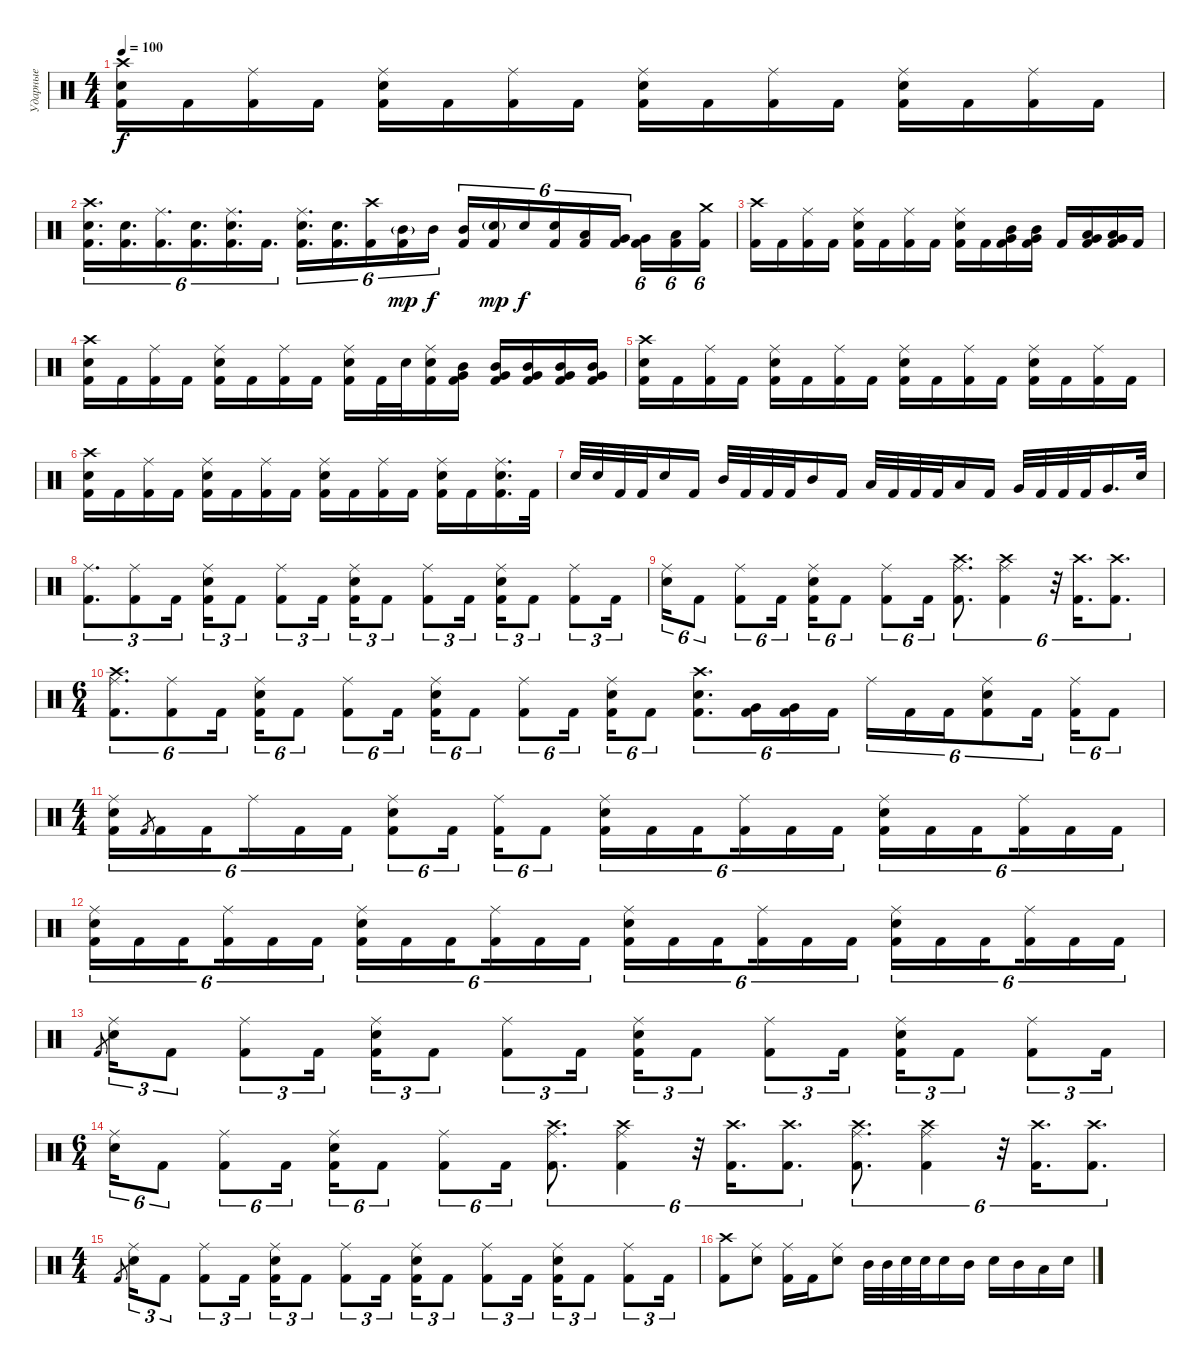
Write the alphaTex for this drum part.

\track ("Ударные" "Ударные") {instrument percussion}
\staff
\articulation defaults
\ts (4 4)
\tempo 100
\clef neutral
\ks c
("Kick (hit) 2" "Electric Snare (hit)" "Crash high (hit)").16{dy f} "Kick (hit) 2".16 ("Kick (hit) 2" "Ride (middle)").16 "Kick (hit) 2".16 ("Kick (hit) 2" "Electric Snare (hit)" "Ride (middle)").16 "Kick (hit) 2".16 ("Kick (hit) 2" "Ride (middle)").16 "Kick (hit) 2".16 ("Kick (hit) 2" "Electric Snare (hit)" "Ride (middle)").16 "Kick (hit) 2".16 ("Kick (hit) 2" "Ride (middle)").16 "Kick (hit) 2".16 ("Kick (hit) 2" "Electric Snare (hit)" "Ride (middle)").16 "Kick (hit) 2".16 ("Kick (hit) 2" "Ride (middle)").16 "Kick (hit) 2".16 |
("Kick (hit) 2" "Crash high (hit)" "Electric Snare (hit)").16{d tu (6 4)} ("Kick (hit) 2" "Electric Snare (hit)").16{d tu (6 4)} ("Kick (hit) 2" "Ride (middle)").16{d tu (6 4)} ("Kick (hit) 2" "Electric Snare (hit)").16{d tu (6 4)} ("Kick (hit) 2" "Electric Snare (hit)" "Ride (middle)").16{d tu (6 4)} "Kick (hit) 2".16{d tu (6 4)} ("Kick (hit) 2" "Electric Snare (hit)" "Ride (middle)").16{d tu (6 4)} ("Kick (hit) 2" "Electric Snare (hit)").16{d tu (6 4)} ("Kick (hit) 2" "Crash high (hit)").16{tu (6 4)} ("Kick (hit) 2" "Mid Tom (hit)"{g}).16{tu (6 4) dy mp} "Mid Tom (hit)".16{tu (6 4) dy f beam splitsecondary} ("Kick (hit) 2" "Mid Tom (hit)").16{tu (6 4)} ("Kick (hit) 2" "Electric Snare (hit)"{g}).16{tu (6 4) dy mp} "Electric Snare (hit)".16{tu (6 4) dy f} ("Kick (hit) 2" "Electric Snare (hit)").16{tu (6 4)} ("Kick (hit) 2" "Low Tom (hit)").16{tu (6 4)} ("Kick (hit) 2" "Very Low Tom (hit)").16{tu (6 4) beam splitsecondary} ("Kick (hit) 2" "Very Low Tom (hit)").16{tu (6 4)} ("Kick (hit) 2" "Low Floor Tom (hit)").16{tu (6 4)} ("Kick (hit) 2" "Crash medium (hit)").16{tu (6 4)} |
("Kick (hit) 2" "Crash high (hit)").16 "Kick (hit) 2".16 ("Kick (hit) 2" "Ride (middle)").16 "Kick (hit) 2".16 ("Kick (hit) 2" "Electric Snare (hit)" "Ride (middle)").16 "Kick (hit) 2".16 ("Kick (hit) 2" "Ride (middle)").16 "Kick (hit) 2".16 ("Kick (hit) 2" "Electric Snare (hit)" "Ride (middle)").16 "Kick (hit) 2".16 ("Kick (hit) 2" "Mid Tom (hit)" "Very Low Tom (hit)").16 ("Kick (hit) 2" "Mid Tom (hit)" "Very Low Tom (hit)").16 "Kick (hit) 2".16 ("Kick (hit) 2" "Low Tom (hit)" "Very Low Tom (hit)").16 ("Kick (hit) 2" "Low Tom (hit)" "Very Low Tom (hit)").16 "Kick (hit) 2".16 |
("Kick (hit) 2" "Crash high (hit)" "Electric Snare (hit)").16 "Kick (hit) 2".16 ("Kick (hit) 2" "Ride (middle)").16 "Kick (hit) 2".16 ("Kick (hit) 2" "Electric Snare (hit)" "Ride (middle)").16 "Kick (hit) 2".16 ("Kick (hit) 2" "Ride (middle)").16 "Kick (hit) 2".16 ("Kick (hit) 2" "Electric Snare (hit)" "Ride (middle)").16 "Kick (hit) 2".32 "Electric Snare (hit)".32 ("Kick (hit) 2" "Electric Snare (hit)" "Ride (middle)").16 ("Kick (hit) 2" "Mid Tom (hit)" "Very Low Tom (hit)").16 ("Kick (hit) 2" "Mid Tom (hit)" "Very Low Tom (hit)").16 ("Kick (hit) 2" "Mid Tom (hit)" "Very Low Tom (hit)").16 ("Kick (hit) 2" "Mid Tom (hit)" "Very Low Tom (hit)").16 ("Kick (hit) 2" "Mid Tom (hit)" "Very Low Tom (hit)").16 |
("Kick (hit) 2" "Electric Snare (hit)" "Crash high (hit)").16 "Kick (hit) 2".16 ("Kick (hit) 2" "Ride (middle)").16 "Kick (hit) 2".16 ("Kick (hit) 2" "Electric Snare (hit)" "Ride (middle)").16 "Kick (hit) 2".16 ("Kick (hit) 2" "Ride (middle)").16 "Kick (hit) 2".16 ("Kick (hit) 2" "Electric Snare (hit)" "Ride (middle)").16 "Kick (hit) 2".16 ("Kick (hit) 2" "Ride (middle)").16 "Kick (hit) 2".16 ("Kick (hit) 2" "Electric Snare (hit)" "Ride (middle)").16 "Kick (hit) 2".16 ("Kick (hit) 2" "Ride (middle)").16 "Kick (hit) 2".16 |
("Kick (hit) 2" "Crash high (hit)" "Electric Snare (hit)").16 "Kick (hit) 2".16 ("Kick (hit) 2" "Ride (middle)").16 "Kick (hit) 2".16 ("Kick (hit) 2" "Electric Snare (hit)" "Ride (middle)").16 "Kick (hit) 2".16 ("Kick (hit) 2" "Ride (middle)").16 "Kick (hit) 2".16 ("Kick (hit) 2" "Electric Snare (hit)" "Ride (middle)").16 "Kick (hit) 2".16 ("Kick (hit) 2" "Ride (middle)").16 "Kick (hit) 2".16 ("Kick (hit) 2" "Electric Snare (hit)" "Ride (middle)").16 "Kick (hit) 2".16 ("Kick (hit) 2" "Electric Snare (hit)" "Ride (middle)").16{d} "Kick (hit) 2".32 |
"Electric Snare (hit)".32 "Electric Snare (hit)".32 "Kick (hit) 2".32 "Kick (hit) 2".32 "Electric Snare (hit)".16 "Kick (hit) 2".16 "Mid Tom (hit)".32 "Kick (hit) 2".32 "Kick (hit) 2".32 "Kick (hit) 2".32 "Mid Tom (hit)".16 "Kick (hit) 2".16 "Low Tom (hit)".32 "Kick (hit) 2".32 "Kick (hit) 2".32 "Kick (hit) 2".32 "Low Tom (hit)".16 "Kick (hit) 2".16 "Very Low Tom (hit)".32 "Kick (hit) 2".32 "Kick (hit) 2".32 "Kick (hit) 2".32 "Very Low Tom (hit)".16{d} "Electric Snare (hit)".32 |
("Kick (hit) 2" "Ride (middle)").8{d tu (3 2)} ("Kick (hit) 2" "Ride (middle)").8{tu (3 2)} "Kick (hit) 2".16{tu (3 2)} ("Kick (hit) 2" "Electric Snare (hit)" "Ride (middle)").16{tu (3 2)} "Kick (hit) 2".8{tu (3 2)} ("Kick (hit) 2" "Ride (middle)").8{tu (3 2)} "Kick (hit) 2".16{tu (3 2)} ("Kick (hit) 2" "Electric Snare (hit)" "Ride (middle)").16{tu (3 2)} "Kick (hit) 2".8{tu (3 2)} ("Kick (hit) 2" "Ride (middle)").8{tu (3 2)} "Kick (hit) 2".16{tu (3 2)} ("Kick (hit) 2" "Electric Snare (hit)" "Ride (middle)").16{tu (3 2)} "Kick (hit) 2".8{tu (3 2)} ("Kick (hit) 2" "Ride (middle)").8{tu (3 2)} "Kick (hit) 2".16{tu (3 2)} |
("Electric Snare (hit)" "Ride (middle)").16{tu (6 4)} "Kick (hit) 2".8{tu (6 4)} ("Kick (hit) 2" "Ride (middle)").8{tu (6 4)} "Kick (hit) 2".16{tu (6 4)} ("Kick (hit) 2" "Electric Snare (hit)" "Ride (middle)").16{tu (6 4)} "Kick (hit) 2".8{tu (6 4)} ("Kick (hit) 2" "Ride (middle)").8{tu (6 4)} "Kick (hit) 2".16{tu (6 4)} ("Kick (hit) 2" "Crash high (hit)" "Ride (middle)").8{d tu (6 4)} ("Kick (hit) 2" "Crash high (hit)" "Ride (middle)").4{tu (6 4)} r.32{tu (6 4)} ("Kick (hit) 2" "Crash high (hit)").16{d tu (6 4)} ("Kick (hit) 2" "Crash high (hit)").8{d tu (6 4)} |
\ts (6 4)
("Kick (hit) 2" "Crash high (hit)" "Ride (middle)").8{d tu (6 4)} ("Kick (hit) 2" "Ride (middle)").8{tu (6 4)} "Kick (hit) 2".16{tu (6 4) beam splitsecondary} ("Kick (hit) 2" "Electric Snare (hit)" "Ride (middle)").16{tu (6 4)} "Kick (hit) 2".8{tu (6 4)} ("Kick (hit) 2" "Ride (middle)").8{tu (6 4)} "Kick (hit) 2".16{tu (6 4) beam splitsecondary} ("Kick (hit) 2" "Electric Snare (hit)" "Ride (middle)").16{tu (6 4)} "Kick (hit) 2".8{tu (6 4)} ("Kick (hit) 2" "Ride (middle)").8{tu (6 4)} "Kick (hit) 2".16{tu (6 4)} ("Kick (hit) 2" "Electric Snare (hit)" "Ride (middle)").16{tu (6 4)} "Kick (hit) 2".8{tu (6 4)} ("Kick (hit) 2" "Electric Snare (hit)" "Crash high (hit)").8{d tu (6 4)} ("Kick (hit) 2" "Very Low Tom (hit)").16{tu (6 4)} ("Kick (hit) 2" "Very Low Tom (hit)").16{tu (6 4)} "Kick (hit) 2".16{tu (6 4) beam splitsecondary} "Ride (middle)".16{tu (6 4)} "Kick (hit) 2".16{tu (6 4)} "Kick (hit) 2".16{tu (6 4)} ("Kick (hit) 2" "Electric Snare (hit)" "Ride (middle)").8{tu (6 4)} "Kick (hit) 2".16{tu (6 4) beam splitsecondary} ("Kick (hit) 2" "Ride (middle)").16{tu (6 4)} "Kick (hit) 2".8{tu (6 4)} |
\ts (4 4)
("Kick (hit) 2" "Electric Snare (hit)" "Ride (middle)").16{tu (6 4)} "Kick (hit) 2".8{gr} "Kick (hit) 2".16{tu (6 4)} "Kick (hit) 2".16{tu (6 4) beam splitsecondary} "Ride (middle)".16{tu (6 4)} "Kick (hit) 2".16{tu (6 4)} "Kick (hit) 2".16{tu (6 4)} ("Kick (hit) 2" "Electric Snare (hit)" "Ride (middle)").8{tu (6 4)} "Kick (hit) 2".16{tu (6 4) beam splitsecondary} ("Kick (hit) 2" "Ride (middle)").16{tu (6 4)} "Kick (hit) 2".8{tu (6 4)} ("Kick (hit) 2" "Electric Snare (hit)" "Ride (middle)").16{tu (6 4)} "Kick (hit) 2".16{tu (6 4)} "Kick (hit) 2".16{tu (6 4) beam splitsecondary} ("Kick (hit) 2" "Ride (middle)").16{tu (6 4)} "Kick (hit) 2".16{tu (6 4)} "Kick (hit) 2".16{tu (6 4)} ("Kick (hit) 2" "Electric Snare (hit)" "Ride (middle)").16{tu (6 4)} "Kick (hit) 2".16{tu (6 4)} "Kick (hit) 2".16{tu (6 4) beam splitsecondary} ("Kick (hit) 2" "Ride (middle)").16{tu (6 4)} "Kick (hit) 2".16{tu (6 4)} "Kick (hit) 2".16{tu (6 4)} |
("Kick (hit) 2" "Electric Snare (hit)" "Ride (middle)").16{tu (6 4)} "Kick (hit) 2".16{tu (6 4)} "Kick (hit) 2".16{tu (6 4) beam splitsecondary} ("Kick (hit) 2" "Ride (middle)").16{tu (6 4)} "Kick (hit) 2".16{tu (6 4)} "Kick (hit) 2".16{tu (6 4)} ("Kick (hit) 2" "Electric Snare (hit)" "Ride (middle)").16{tu (6 4)} "Kick (hit) 2".16{tu (6 4)} "Kick (hit) 2".16{tu (6 4) beam splitsecondary} ("Kick (hit) 2" "Ride (middle)").16{tu (6 4)} "Kick (hit) 2".16{tu (6 4)} "Kick (hit) 2".16{tu (6 4)} ("Kick (hit) 2" "Electric Snare (hit)" "Ride (middle)").16{tu (6 4)} "Kick (hit) 2".16{tu (6 4)} "Kick (hit) 2".16{tu (6 4) beam splitsecondary} ("Kick (hit) 2" "Ride (middle)").16{tu (6 4)} "Kick (hit) 2".16{tu (6 4)} "Kick (hit) 2".16{tu (6 4)} ("Kick (hit) 2" "Electric Snare (hit)" "Ride (middle)").16{tu (6 4)} "Kick (hit) 2".16{tu (6 4)} "Kick (hit) 2".16{tu (6 4) beam splitsecondary} ("Kick (hit) 2" "Ride (middle)").16{tu (6 4)} "Kick (hit) 2".16{tu (6 4)} "Kick (hit) 2".16{tu (6 4)} |
"Kick (hit) 2".8{gr} ("Electric Snare (hit)" "Ride (middle)").16{tu (3 2)} "Kick (hit) 2".8{tu (3 2)} ("Kick (hit) 2" "Ride (middle)").8{tu (3 2)} "Kick (hit) 2".16{tu (3 2)} ("Kick (hit) 2" "Electric Snare (hit)" "Ride (middle)").16{tu (3 2)} "Kick (hit) 2".8{tu (3 2)} ("Kick (hit) 2" "Ride (middle)").8{tu (3 2)} "Kick (hit) 2".16{tu (3 2)} ("Kick (hit) 2" "Electric Snare (hit)" "Ride (middle)").16{tu (3 2)} "Kick (hit) 2".8{tu (3 2)} ("Kick (hit) 2" "Ride (middle)").8{tu (3 2)} "Kick (hit) 2".16{tu (3 2)} ("Kick (hit) 2" "Electric Snare (hit)" "Ride (middle)").16{tu (3 2)} "Kick (hit) 2".8{tu (3 2)} ("Kick (hit) 2" "Ride (middle)").8{tu (3 2)} "Kick (hit) 2".16{tu (3 2)} |
\ts (6 4)
("Electric Snare (hit)" "Ride (middle)").16{tu (6 4)} "Kick (hit) 2".8{tu (6 4)} ("Kick (hit) 2" "Ride (middle)").8{tu (6 4)} "Kick (hit) 2".16{tu (6 4) beam splitsecondary} ("Kick (hit) 2" "Electric Snare (hit)" "Ride (middle)").16{tu (6 4)} "Kick (hit) 2".8{tu (6 4)} ("Kick (hit) 2" "Ride (middle)").8{tu (6 4)} "Kick (hit) 2".16{tu (6 4)} ("Kick (hit) 2" "Crash high (hit)" "Ride (middle)").8{d tu (6 4)} ("Kick (hit) 2" "Crash high (hit)" "Ride (middle)").4{tu (6 4)} r.32{tu (6 4)} ("Kick (hit) 2" "Crash high (hit)").16{d tu (6 4)} ("Kick (hit) 2" "Crash high (hit)").8{d tu (6 4)} ("Kick (hit) 2" "Crash high (hit)" "Ride (middle)").8{d tu (6 4)} ("Kick (hit) 2" "Crash high (hit)" "Ride (middle)").4{tu (6 4)} r.32{tu (6 4)} ("Kick (hit) 2" "Crash high (hit)").16{d tu (6 4)} ("Kick (hit) 2" "Crash high (hit)").8{d tu (6 4)} |
\ts (4 4)
"Kick (hit) 2".8{gr} ("Electric Snare (hit)" "Ride (middle)").16{tu (3 2)} "Kick (hit) 2".8{tu (3 2)} ("Kick (hit) 2" "Ride (middle)").8{tu (3 2)} "Kick (hit) 2".16{tu (3 2)} ("Kick (hit) 2" "Electric Snare (hit)" "Ride (middle)").16{tu (3 2)} "Kick (hit) 2".8{tu (3 2)} ("Kick (hit) 2" "Ride (middle)").8{tu (3 2)} "Kick (hit) 2".16{tu (3 2)} ("Kick (hit) 2" "Electric Snare (hit)" "Ride (middle)").16{tu (3 2)} "Kick (hit) 2".8{tu (3 2)} ("Kick (hit) 2" "Ride (middle)").8{tu (3 2)} "Kick (hit) 2".16{tu (3 2)} ("Kick (hit) 2" "Electric Snare (hit)" "Ride (middle)").16{tu (3 2)} "Kick (hit) 2".8{tu (3 2)} ("Kick (hit) 2" "Ride (middle)").8{tu (3 2)} "Kick (hit) 2".16{tu (3 2)} |
("Kick (hit) 2" "Crash high (hit)").8 ("Electric Snare (hit)" "Ride (middle)").8 ("Kick (hit) 2" "Ride (middle)").16 "Kick (hit) 2".16 ("Electric Snare (hit)" "Ride (middle)").8 "Mid Tom (hit)".32 "Mid Tom (hit)".32 "Electric Snare (hit)".32 "Electric Snare (hit)".32 "Electric Snare (hit)".16 "Mid Tom (hit)".16 "Electric Snare (hit)".16 "Mid Tom (hit)".16 "Low Tom (hit)".16 "Electric Snare (hit)".16
